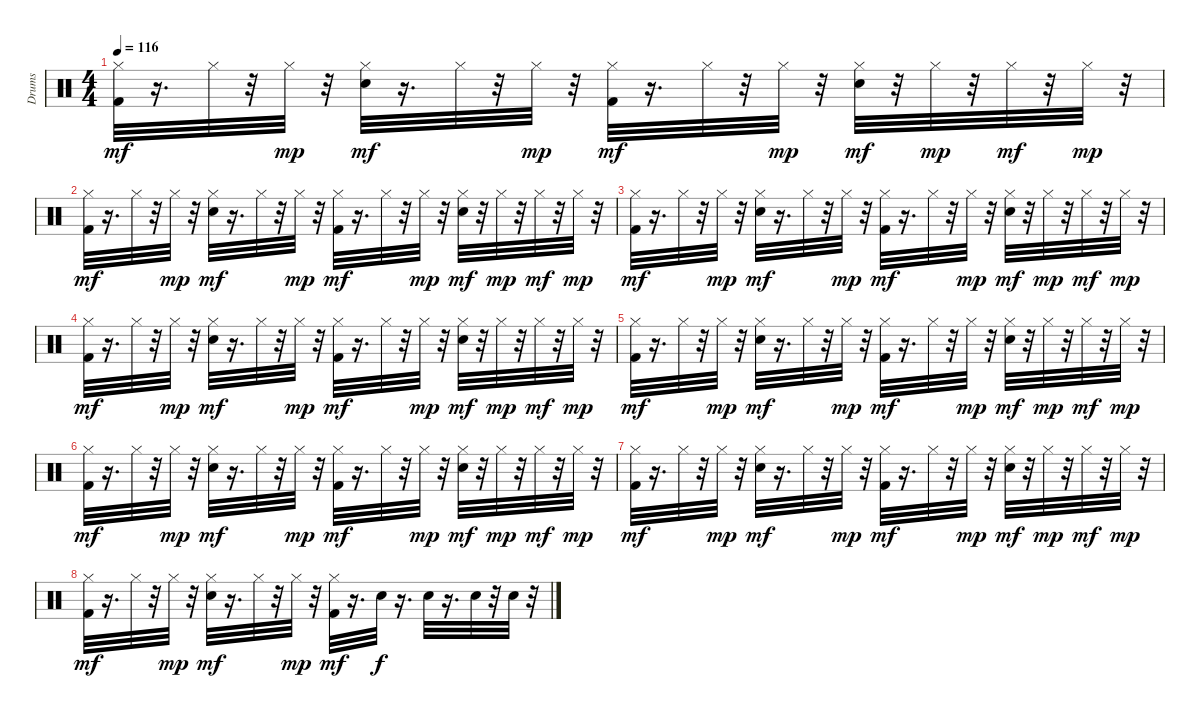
\track ("Drums" "Drums") {instrument percussion}
\staff {score}
\articulation defaults
\ts (4 4)
\tempo 116
\clef neutral
\ks c
("Hi-Hat (closed)" "Kick (hit) 2").32{dy mf} r.16{d} "Hi-Hat (closed)".32 r.32 "Hi-Hat (closed)".32{dy mp} r.32 ("Snare (hit) 2" "Hi-Hat (closed)").32{dy mf} r.16{d} "Hi-Hat (closed)".32 r.32 "Hi-Hat (closed)".32{dy mp} r.32 ("Kick (hit) 2" "Hi-Hat (closed)").32{dy mf} r.16{d} "Hi-Hat (closed)".32 r.32 "Hi-Hat (closed)".32{dy mp} r.32 ("Snare (hit) 2" "Hi-Hat (closed)").32{dy mf} r.32 "Hi-Hat (closed)".32{dy mp} r.32 "Hi-Hat (closed)".32{dy mf} r.32 "Hi-Hat (closed)".32{dy mp} r.32 |
("Hi-Hat (closed)" "Kick (hit) 2").32{dy mf} r.16{d} "Hi-Hat (closed)".32 r.32 "Hi-Hat (closed)".32{dy mp} r.32 ("Hi-Hat (closed)" "Snare (hit) 2").32{dy mf} r.16{d} "Hi-Hat (closed)".32 r.32 "Hi-Hat (closed)".32{dy mp} r.32 ("Hi-Hat (closed)" "Kick (hit) 2").32{dy mf} r.16{d} "Hi-Hat (closed)".32 r.32 "Hi-Hat (closed)".32{dy mp} r.32 ("Hi-Hat (closed)" "Snare (hit) 2").32{dy mf} r.32 "Hi-Hat (closed)".32{dy mp} r.32 "Hi-Hat (closed)".32{dy mf} r.32 "Hi-Hat (closed)".32{dy mp} r.32 |
("Kick (hit) 2" "Hi-Hat (closed)").32{dy mf} r.16{d} "Hi-Hat (closed)".32 r.32 "Hi-Hat (closed)".32{dy mp} r.32 ("Snare (hit) 2" "Hi-Hat (closed)").32{dy mf} r.16{d} "Hi-Hat (closed)".32 r.32 "Hi-Hat (closed)".32{dy mp} r.32 ("Kick (hit) 2" "Hi-Hat (closed)").32{dy mf} r.16{d} "Hi-Hat (closed)".32 r.32 "Hi-Hat (closed)".32{dy mp} r.32 ("Snare (hit) 2" "Hi-Hat (closed)").32{dy mf} r.32 "Hi-Hat (closed)".32{dy mp} r.32 "Hi-Hat (closed)".32{dy mf} r.32 "Hi-Hat (closed)".32{dy mp} r.32 |
("Hi-Hat (closed)" "Kick (hit) 2").32{dy mf} r.16{d} "Hi-Hat (closed)".32 r.32 "Hi-Hat (closed)".32{dy mp} r.32 ("Hi-Hat (closed)" "Snare (hit) 2").32{dy mf} r.16{d} "Hi-Hat (closed)".32 r.32 "Hi-Hat (closed)".32{dy mp} r.32 ("Kick (hit) 2" "Hi-Hat (closed)").32{dy mf} r.16{d} "Hi-Hat (closed)".32 r.32 "Hi-Hat (closed)".32{dy mp} r.32 ("Snare (hit) 2" "Hi-Hat (closed)").32{dy mf} r.32 "Hi-Hat (closed)".32{dy mp} r.32 "Hi-Hat (closed)".32{dy mf} r.32 "Hi-Hat (closed)".32{dy mp} r.32 |
("Hi-Hat (closed)" "Kick (hit) 2").32{dy mf} r.16{d} "Hi-Hat (closed)".32 r.32 "Hi-Hat (closed)".32{dy mp} r.32 ("Snare (hit) 2" "Hi-Hat (closed)").32{dy mf} r.16{d} "Hi-Hat (closed)".32 r.32 "Hi-Hat (closed)".32{dy mp} r.32 ("Kick (hit) 2" "Hi-Hat (closed)").32{dy mf} r.16{d} "Hi-Hat (closed)".32 r.32 "Hi-Hat (closed)".32{dy mp} r.32 ("Snare (hit) 2" "Hi-Hat (closed)").32{dy mf} r.32 "Hi-Hat (closed)".32{dy mp} r.32 "Hi-Hat (closed)".32{dy mf} r.32 "Hi-Hat (closed)".32{dy mp} r.32 |
("Hi-Hat (closed)" "Kick (hit) 2").32{dy mf} r.16{d} "Hi-Hat (closed)".32 r.32 "Hi-Hat (closed)".32{dy mp} r.32 ("Snare (hit) 2" "Hi-Hat (closed)").32{dy mf} r.16{d} "Hi-Hat (closed)".32 r.32 "Hi-Hat (closed)".32{dy mp} r.32 ("Hi-Hat (closed)" "Kick (hit) 2").32{dy mf} r.16{d} "Hi-Hat (closed)".32 r.32 "Hi-Hat (closed)".32{dy mp} r.32 ("Hi-Hat (closed)" "Snare (hit) 2").32{dy mf} r.32 "Hi-Hat (closed)".32{dy mp} r.32 "Hi-Hat (closed)".32{dy mf} r.32 "Hi-Hat (closed)".32{dy mp} r.32 |
("Kick (hit) 2" "Hi-Hat (closed)").32{dy mf} r.16{d} "Hi-Hat (closed)".32 r.32 "Hi-Hat (closed)".32{dy mp} r.32 ("Hi-Hat (closed)" "Snare (hit) 2").32{dy mf} r.16{d} "Hi-Hat (closed)".32 r.32 "Hi-Hat (closed)".32{dy mp} r.32 ("Hi-Hat (closed)" "Kick (hit) 2").32{dy mf} r.16{d} "Hi-Hat (closed)".32 r.32 "Hi-Hat (closed)".32{dy mp} r.32 ("Snare (hit) 2" "Hi-Hat (closed)").32{dy mf} r.32 "Hi-Hat (closed)".32{dy mp} r.32 "Hi-Hat (closed)".32{dy mf} r.32 "Hi-Hat (closed)".32{dy mp} r.32 |
("Kick (hit) 2" "Hi-Hat (closed)").32{dy mf} r.16{d} "Hi-Hat (closed)".32 r.32 "Hi-Hat (closed)".32{dy mp} r.32 ("Snare (hit) 2" "Hi-Hat (closed)").32{dy mf} r.16{d} "Hi-Hat (closed)".32 r.32 "Hi-Hat (closed)".32{dy mp} r.32 ("Kick (hit) 2" "Hi-Hat (closed)").32{dy mf} r.16{d} "Snare (hit) 2".32{dy f} r.16{d} "Snare (hit) 2".32 r.16{d} "Snare (hit) 2".32 r.32 "Snare (hit) 2".32 r.32
